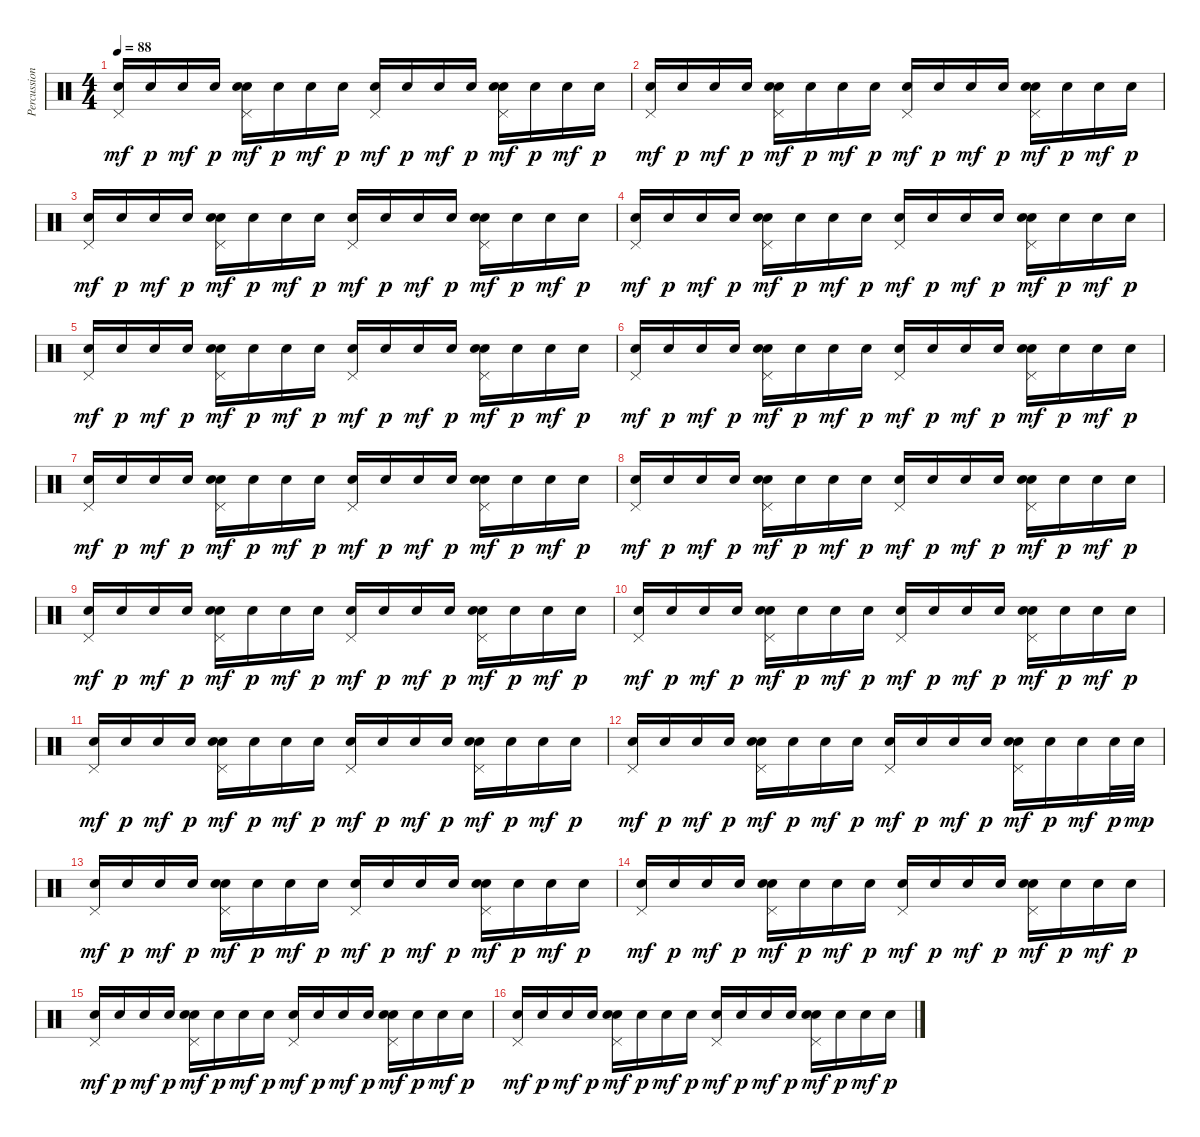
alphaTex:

\track ("Percussion" "Percussion") {instrument percussion}
\staff {score}
\articulation defaults
\ts (4 4)
\tempo 88
\clef neutral
\ks c
("Snare (hit) 2" "Pedal Hi-Hat (hit)").16{dy mf} "Snare (hit) 2".16{dy p} "Snare (hit) 2".16{dy mf} "Snare (hit) 2".16{dy p} ("Hand Clap (hit)" "Snare (hit) 2" "Pedal Hi-Hat (hit)").16{dy mf} "Snare (hit) 2".16{dy p} "Snare (hit) 2".16{dy mf} "Snare (hit) 2".16{dy p} ("Snare (hit) 2" "Pedal Hi-Hat (hit)").16{dy mf} "Snare (hit) 2".16{dy p} "Snare (hit) 2".16{dy mf} "Snare (hit) 2".16{dy p} ("Snare (hit) 2" "Hand Clap (hit)" "Pedal Hi-Hat (hit)").16{dy mf} "Snare (hit) 2".16{dy p} "Snare (hit) 2".16{dy mf} "Snare (hit) 2".16{dy p} |
("Snare (hit) 2" "Pedal Hi-Hat (hit)").16{dy mf} "Snare (hit) 2".16{dy p} "Snare (hit) 2".16{dy mf} "Snare (hit) 2".16{dy p} ("Hand Clap (hit)" "Snare (hit) 2" "Pedal Hi-Hat (hit)").16{dy mf} "Snare (hit) 2".16{dy p} "Snare (hit) 2".16{dy mf} "Snare (hit) 2".16{dy p} ("Snare (hit) 2" "Pedal Hi-Hat (hit)").16{dy mf} "Snare (hit) 2".16{dy p} "Snare (hit) 2".16{dy mf} "Snare (hit) 2".16{dy p} ("Snare (hit) 2" "Hand Clap (hit)" "Pedal Hi-Hat (hit)").16{dy mf} "Snare (hit) 2".16{dy p} "Snare (hit) 2".16{dy mf} "Snare (hit) 2".16{dy p} |
("Snare (hit) 2" "Pedal Hi-Hat (hit)").16{dy mf} "Snare (hit) 2".16{dy p} "Snare (hit) 2".16{dy mf} "Snare (hit) 2".16{dy p} ("Hand Clap (hit)" "Snare (hit) 2" "Pedal Hi-Hat (hit)").16{dy mf} "Snare (hit) 2".16{dy p} "Snare (hit) 2".16{dy mf} "Snare (hit) 2".16{dy p} ("Snare (hit) 2" "Pedal Hi-Hat (hit)").16{dy mf} "Snare (hit) 2".16{dy p} "Snare (hit) 2".16{dy mf} "Snare (hit) 2".16{dy p} ("Snare (hit) 2" "Hand Clap (hit)" "Pedal Hi-Hat (hit)").16{dy mf} "Snare (hit) 2".16{dy p} "Snare (hit) 2".16{dy mf} "Snare (hit) 2".16{dy p} |
("Snare (hit) 2" "Pedal Hi-Hat (hit)").16{dy mf} "Snare (hit) 2".16{dy p} "Snare (hit) 2".16{dy mf} "Snare (hit) 2".16{dy p} ("Hand Clap (hit)" "Snare (hit) 2" "Pedal Hi-Hat (hit)").16{dy mf} "Snare (hit) 2".16{dy p} "Snare (hit) 2".16{dy mf} "Snare (hit) 2".16{dy p} ("Snare (hit) 2" "Pedal Hi-Hat (hit)").16{dy mf} "Snare (hit) 2".16{dy p} "Snare (hit) 2".16{dy mf} "Snare (hit) 2".16{dy p} ("Snare (hit) 2" "Hand Clap (hit)" "Pedal Hi-Hat (hit)").16{dy mf} "Snare (hit) 2".16{dy p} "Snare (hit) 2".16{dy mf} "Snare (hit) 2".16{dy p} |
("Snare (hit) 2" "Pedal Hi-Hat (hit)").16{dy mf} "Snare (hit) 2".16{dy p} "Snare (hit) 2".16{dy mf} "Snare (hit) 2".16{dy p} ("Hand Clap (hit)" "Snare (hit) 2" "Pedal Hi-Hat (hit)").16{dy mf} "Snare (hit) 2".16{dy p} "Snare (hit) 2".16{dy mf} "Snare (hit) 2".16{dy p} ("Snare (hit) 2" "Pedal Hi-Hat (hit)").16{dy mf} "Snare (hit) 2".16{dy p} "Snare (hit) 2".16{dy mf} "Snare (hit) 2".16{dy p} ("Snare (hit) 2" "Hand Clap (hit)" "Pedal Hi-Hat (hit)").16{dy mf} "Snare (hit) 2".16{dy p} "Snare (hit) 2".16{dy mf} "Snare (hit) 2".16{dy p} |
("Snare (hit) 2" "Pedal Hi-Hat (hit)").16{dy mf} "Snare (hit) 2".16{dy p} "Snare (hit) 2".16{dy mf} "Snare (hit) 2".16{dy p} ("Hand Clap (hit)" "Snare (hit) 2" "Pedal Hi-Hat (hit)").16{dy mf} "Snare (hit) 2".16{dy p} "Snare (hit) 2".16{dy mf} "Snare (hit) 2".16{dy p} ("Snare (hit) 2" "Pedal Hi-Hat (hit)").16{dy mf} "Snare (hit) 2".16{dy p} "Snare (hit) 2".16{dy mf} "Snare (hit) 2".16{dy p} ("Snare (hit) 2" "Hand Clap (hit)" "Pedal Hi-Hat (hit)").16{dy mf} "Snare (hit) 2".16{dy p} "Snare (hit) 2".16{dy mf} "Snare (hit) 2".16{dy p} |
("Snare (hit) 2" "Pedal Hi-Hat (hit)").16{dy mf} "Snare (hit) 2".16{dy p} "Snare (hit) 2".16{dy mf} "Snare (hit) 2".16{dy p} ("Hand Clap (hit)" "Snare (hit) 2" "Pedal Hi-Hat (hit)").16{dy mf} "Snare (hit) 2".16{dy p} "Snare (hit) 2".16{dy mf} "Snare (hit) 2".16{dy p} ("Snare (hit) 2" "Pedal Hi-Hat (hit)").16{dy mf} "Snare (hit) 2".16{dy p} "Snare (hit) 2".16{dy mf} "Snare (hit) 2".16{dy p} ("Snare (hit) 2" "Hand Clap (hit)" "Pedal Hi-Hat (hit)").16{dy mf} "Snare (hit) 2".16{dy p} "Snare (hit) 2".16{dy mf} "Snare (hit) 2".16{dy p} |
("Snare (hit) 2" "Pedal Hi-Hat (hit)").16{dy mf} "Snare (hit) 2".16{dy p} "Snare (hit) 2".16{dy mf} "Snare (hit) 2".16{dy p} ("Hand Clap (hit)" "Snare (hit) 2" "Pedal Hi-Hat (hit)").16{dy mf} "Snare (hit) 2".16{dy p} "Snare (hit) 2".16{dy mf} "Snare (hit) 2".16{dy p} ("Snare (hit) 2" "Pedal Hi-Hat (hit)").16{dy mf} "Snare (hit) 2".16{dy p} "Snare (hit) 2".16{dy mf} "Snare (hit) 2".16{dy p} ("Snare (hit) 2" "Hand Clap (hit)" "Pedal Hi-Hat (hit)").16{dy mf} "Snare (hit) 2".16{dy p} "Snare (hit) 2".16{dy mf} "Snare (hit) 2".16{dy p} |
("Snare (hit) 2" "Pedal Hi-Hat (hit)").16{dy mf} "Snare (hit) 2".16{dy p} "Snare (hit) 2".16{dy mf} "Snare (hit) 2".16{dy p} ("Hand Clap (hit)" "Snare (hit) 2" "Pedal Hi-Hat (hit)").16{dy mf} "Snare (hit) 2".16{dy p} "Snare (hit) 2".16{dy mf} "Snare (hit) 2".16{dy p} ("Snare (hit) 2" "Pedal Hi-Hat (hit)").16{dy mf} "Snare (hit) 2".16{dy p} "Snare (hit) 2".16{dy mf} "Snare (hit) 2".16{dy p} ("Snare (hit) 2" "Hand Clap (hit)" "Pedal Hi-Hat (hit)").16{dy mf} "Snare (hit) 2".16{dy p} "Snare (hit) 2".16{dy mf} "Snare (hit) 2".16{dy p} |
("Snare (hit) 2" "Pedal Hi-Hat (hit)").16{dy mf} "Snare (hit) 2".16{dy p} "Snare (hit) 2".16{dy mf} "Snare (hit) 2".16{dy p} ("Hand Clap (hit)" "Snare (hit) 2" "Pedal Hi-Hat (hit)").16{dy mf} "Snare (hit) 2".16{dy p} "Snare (hit) 2".16{dy mf} "Snare (hit) 2".16{dy p} ("Snare (hit) 2" "Pedal Hi-Hat (hit)").16{dy mf} "Snare (hit) 2".16{dy p} "Snare (hit) 2".16{dy mf} "Snare (hit) 2".16{dy p} ("Snare (hit) 2" "Hand Clap (hit)" "Pedal Hi-Hat (hit)").16{dy mf} "Snare (hit) 2".16{dy p} "Snare (hit) 2".16{dy mf} "Snare (hit) 2".16{dy p} |
("Snare (hit) 2" "Pedal Hi-Hat (hit)").16{dy mf} "Snare (hit) 2".16{dy p} "Snare (hit) 2".16{dy mf} "Snare (hit) 2".16{dy p} ("Hand Clap (hit)" "Snare (hit) 2" "Pedal Hi-Hat (hit)").16{dy mf} "Snare (hit) 2".16{dy p} "Snare (hit) 2".16{dy mf} "Snare (hit) 2".16{dy p} ("Snare (hit) 2" "Pedal Hi-Hat (hit)").16{dy mf} "Snare (hit) 2".16{dy p} "Snare (hit) 2".16{dy mf} "Snare (hit) 2".16{dy p} ("Snare (hit) 2" "Hand Clap (hit)" "Pedal Hi-Hat (hit)").16{dy mf} "Snare (hit) 2".16{dy p} "Snare (hit) 2".16{dy mf} "Snare (hit) 2".16{dy p} |
("Snare (hit) 2" "Pedal Hi-Hat (hit)").16{dy mf} "Snare (hit) 2".16{dy p} "Snare (hit) 2".16{dy mf} "Snare (hit) 2".16{dy p} ("Hand Clap (hit)" "Snare (hit) 2" "Pedal Hi-Hat (hit)").16{dy mf} "Snare (hit) 2".16{dy p} "Snare (hit) 2".16{dy mf} "Snare (hit) 2".16{dy p} ("Snare (hit) 2" "Pedal Hi-Hat (hit)").16{dy mf} "Snare (hit) 2".16{dy p} "Snare (hit) 2".16{dy mf} "Snare (hit) 2".16{dy p} ("Snare (hit) 2" "Hand Clap (hit)" "Pedal Hi-Hat (hit)").16{dy mf} "Snare (hit) 2".16{dy p} "Snare (hit) 2".16{dy mf} "Snare (hit) 2".32{dy p} "Snare (hit) 2".32{dy mp} |
("Snare (hit) 2" "Pedal Hi-Hat (hit)").16{dy mf} "Snare (hit) 2".16{dy p} "Snare (hit) 2".16{dy mf} "Snare (hit) 2".16{dy p} ("Hand Clap (hit)" "Snare (hit) 2" "Pedal Hi-Hat (hit)").16{dy mf} "Snare (hit) 2".16{dy p} "Snare (hit) 2".16{dy mf} "Snare (hit) 2".16{dy p} ("Snare (hit) 2" "Pedal Hi-Hat (hit)").16{dy mf} "Snare (hit) 2".16{dy p} "Snare (hit) 2".16{dy mf} "Snare (hit) 2".16{dy p} ("Snare (hit) 2" "Hand Clap (hit)" "Pedal Hi-Hat (hit)").16{dy mf} "Snare (hit) 2".16{dy p} "Snare (hit) 2".16{dy mf} "Snare (hit) 2".16{dy p} |
("Snare (hit) 2" "Pedal Hi-Hat (hit)").16{dy mf} "Snare (hit) 2".16{dy p} "Snare (hit) 2".16{dy mf} "Snare (hit) 2".16{dy p} ("Hand Clap (hit)" "Snare (hit) 2" "Pedal Hi-Hat (hit)").16{dy mf} "Snare (hit) 2".16{dy p} "Snare (hit) 2".16{dy mf} "Snare (hit) 2".16{dy p} ("Snare (hit) 2" "Pedal Hi-Hat (hit)").16{dy mf} "Snare (hit) 2".16{dy p} "Snare (hit) 2".16{dy mf} "Snare (hit) 2".16{dy p} ("Snare (hit) 2" "Hand Clap (hit)" "Pedal Hi-Hat (hit)").16{dy mf} "Snare (hit) 2".16{dy p} "Snare (hit) 2".16{dy mf} "Snare (hit) 2".16{dy p} |
("Snare (hit) 2" "Pedal Hi-Hat (hit)").16{dy mf} "Snare (hit) 2".16{dy p} "Snare (hit) 2".16{dy mf} "Snare (hit) 2".16{dy p} ("Hand Clap (hit)" "Snare (hit) 2" "Pedal Hi-Hat (hit)").16{dy mf} "Snare (hit) 2".16{dy p} "Snare (hit) 2".16{dy mf} "Snare (hit) 2".16{dy p} ("Snare (hit) 2" "Pedal Hi-Hat (hit)").16{dy mf} "Snare (hit) 2".16{dy p} "Snare (hit) 2".16{dy mf} "Snare (hit) 2".16{dy p} ("Snare (hit) 2" "Hand Clap (hit)" "Pedal Hi-Hat (hit)").16{dy mf} "Snare (hit) 2".16{dy p} "Snare (hit) 2".16{dy mf} "Snare (hit) 2".16{dy p} |
("Snare (hit) 2" "Pedal Hi-Hat (hit)").16{dy mf} "Snare (hit) 2".16{dy p} "Snare (hit) 2".16{dy mf} "Snare (hit) 2".16{dy p} ("Hand Clap (hit)" "Snare (hit) 2" "Pedal Hi-Hat (hit)").16{dy mf} "Snare (hit) 2".16{dy p} "Snare (hit) 2".16{dy mf} "Snare (hit) 2".16{dy p} ("Snare (hit) 2" "Pedal Hi-Hat (hit)").16{dy mf} "Snare (hit) 2".16{dy p} "Snare (hit) 2".16{dy mf} "Snare (hit) 2".16{dy p} ("Snare (hit) 2" "Hand Clap (hit)" "Pedal Hi-Hat (hit)").16{dy mf} "Snare (hit) 2".16{dy p} "Snare (hit) 2".16{dy mf} "Snare (hit) 2".16{dy p}
